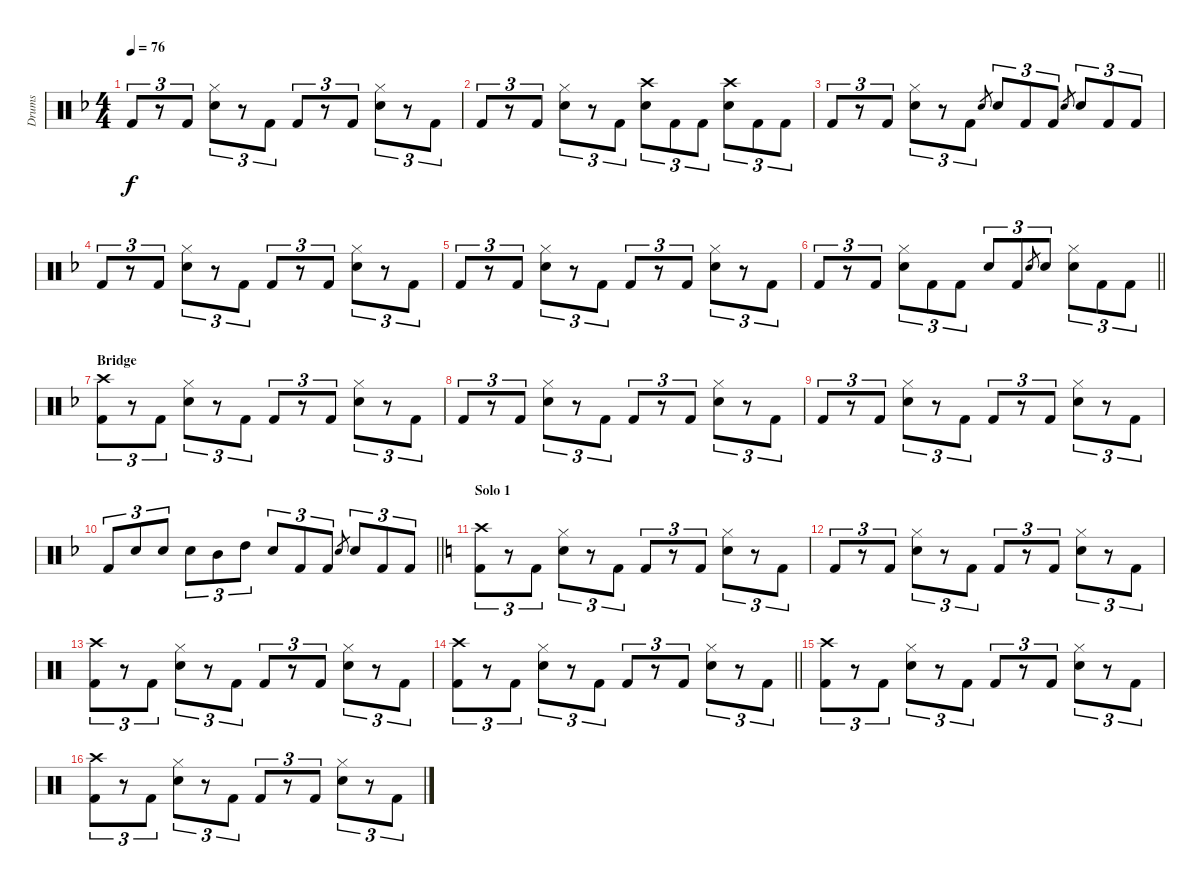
\track ("Drums" "Drums") {instrument percussion}
\staff {score}
\articulation defaults
\ts (4 4)
\tempo 76
\clef neutral
\ks f "Kick (hit) 2".8{tu (3 2) dy f}
r.8{tu (3 2)} "Kick (hit) 2".8{tu (3 2)} ("Hi-Hat (closed)" "Electric Snare (hit)").8{tu (3 2)} r.8{tu (3 2)} "Kick (hit) 2".8{tu (3 2)} "Kick (hit) 2".8{tu (3 2)} r.8{tu (3 2)} "Kick (hit) 2".8{tu (3 2)} ("Hi-Hat (closed)" "Electric Snare (hit)").8{tu (3 2)} r.8{tu (3 2)} "Kick (hit) 2".8{tu (3 2)} |
"Kick (hit) 2".8{tu (3 2)} r.8{tu (3 2)} "Kick (hit) 2".8{tu (3 2)} ("Hi-Hat (closed)" "Electric Snare (hit)").8{tu (3 2)} r.8{tu (3 2)} "Kick (hit) 2".8{tu (3 2)} ("Crash high (hit)" "Electric Snare (hit)").8{tu (3 2)} "Kick (hit) 2".8{tu (3 2)} "Kick (hit) 2".8{tu (3 2)} ("Crash high (hit)" "Electric Snare (hit)").8{tu (3 2)} "Kick (hit) 2".8{tu (3 2)} "Kick (hit) 2".8{tu (3 2)} |
"Kick (hit) 2".8{tu (3 2)} r.8{tu (3 2)} "Kick (hit) 2".8{tu (3 2)} ("Hi-Hat (closed)" "Electric Snare (hit)").8{tu (3 2)} r.8{tu (3 2)} "Kick (hit) 2".8{tu (3 2)} "Electric Snare (hit)".8{gr} "Electric Snare (hit)".8{tu (3 2)} "Kick (hit) 2".8{tu (3 2)} "Kick (hit) 2".8{tu (3 2)} "Electric Snare (hit)".8{gr} "Electric Snare (hit)".8{tu (3 2)} "Kick (hit) 2".8{tu (3 2)} "Kick (hit) 2".8{tu (3 2)} |
"Kick (hit) 2".8{tu (3 2)} r.8{tu (3 2)} "Kick (hit) 2".8{tu (3 2)} ("Hi-Hat (closed)" "Electric Snare (hit)").8{tu (3 2)} r.8{tu (3 2)} "Kick (hit) 2".8{tu (3 2)} "Kick (hit) 2".8{tu (3 2)} r.8{tu (3 2)} "Kick (hit) 2".8{tu (3 2)} ("Hi-Hat (closed)" "Electric Snare (hit)").8{tu (3 2)} r.8{tu (3 2)} "Kick (hit) 2".8{tu (3 2)} |
"Kick (hit) 2".8{tu (3 2)} r.8{tu (3 2)} "Kick (hit) 2".8{tu (3 2)} ("Hi-Hat (closed)" "Electric Snare (hit)").8{tu (3 2)} r.8{tu (3 2)} "Kick (hit) 2".8{tu (3 2)} "Kick (hit) 2".8{tu (3 2)} r.8{tu (3 2)} "Kick (hit) 2".8{tu (3 2)} ("Hi-Hat (closed)" "Electric Snare (hit)").8{tu (3 2)} r.8{tu (3 2)} "Kick (hit) 2".8{tu (3 2)} |
\barLineRight lightlight "Kick (hit) 2".8{tu (3 2)}
r.8{tu (3 2)} "Kick (hit) 2".8{tu (3 2)} ("Hi-Hat (closed)" "Electric Snare (hit)").8{tu (3 2)} "Kick (hit) 2".8{tu (3 2)} "Kick (hit) 2".8{tu (3 2)} "Electric Snare (hit)".8{tu (3 2)} "Kick (hit) 2".8{tu (3 2)} "Electric Snare (hit)".8{gr} "Electric Snare (hit)".8{tu (3 2)} ("Hi-Hat (closed)" "Electric Snare (hit)").8{tu (3 2)} "Kick (hit) 2".8{tu (3 2)} "Kick (hit) 2".8{tu (3 2)} |
\section ("" "Bridge")
("Crash high (hit)" "Kick (hit) 2").8{tu (3 2)} r.8{tu (3 2)} "Kick (hit) 2".8{tu (3 2)} ("Hi-Hat (closed)" "Electric Snare (hit)").8{tu (3 2)} r.8{tu (3 2)} "Kick (hit) 2".8{tu (3 2)} "Kick (hit) 2".8{tu (3 2)} r.8{tu (3 2)} "Kick (hit) 2".8{tu (3 2)} ("Hi-Hat (closed)" "Electric Snare (hit)").8{tu (3 2)} r.8{tu (3 2)} "Kick (hit) 2".8{tu (3 2)} |
"Kick (hit) 2".8{tu (3 2)} r.8{tu (3 2)} "Kick (hit) 2".8{tu (3 2)} ("Hi-Hat (closed)" "Electric Snare (hit)").8{tu (3 2)} r.8{tu (3 2)} "Kick (hit) 2".8{tu (3 2)} "Kick (hit) 2".8{tu (3 2)} r.8{tu (3 2)} "Kick (hit) 2".8{tu (3 2)} ("Hi-Hat (closed)" "Electric Snare (hit)").8{tu (3 2)} r.8{tu (3 2)} "Kick (hit) 2".8{tu (3 2)} |
"Kick (hit) 2".8{tu (3 2)} r.8{tu (3 2)} "Kick (hit) 2".8{tu (3 2)} ("Hi-Hat (closed)" "Electric Snare (hit)").8{tu (3 2)} r.8{tu (3 2)} "Kick (hit) 2".8{tu (3 2)} "Kick (hit) 2".8{tu (3 2)} r.8{tu (3 2)} "Kick (hit) 2".8{tu (3 2)} ("Hi-Hat (closed)" "Electric Snare (hit)").8{tu (3 2)} r.8{tu (3 2)} "Kick (hit) 2".8{tu (3 2)} |
\barLineRight lightlight "Kick (hit) 2".8{tu (3 2)} "Electric Snare (hit)".8{tu (3 2)} "Electric Snare (hit)".8{tu (3 2)} "Electric Snare (hit)".8{tu (3 2)} "Mid Tom (hit)".8{tu (3 2)} "High Tom (hit)".8{tu (3 2)} "Electric Snare (hit)".8{tu (3 2)} "Kick (hit) 2".8{tu (3 2)} "Kick (hit) 2".8{tu (3 2)} "Electric Snare (hit)".8{gr} "Electric Snare (hit)".8{tu (3 2)} "Kick (hit) 2".8{tu (3 2)} "Kick (hit) 2".8{tu (3 2)}
|
\section ("" "Solo 1")
\ks c
("Crash high (hit)" "Kick (hit) 2").8{tu (3 2)} r.8{tu (3 2)} "Kick (hit) 2".8{tu (3 2)} ("Hi-Hat (closed)" "Electric Snare (hit)").8{tu (3 2)} r.8{tu (3 2)} "Kick (hit) 2".8{tu (3 2)} "Kick (hit) 2".8{tu (3 2)} r.8{tu (3 2)} "Kick (hit) 2".8{tu (3 2)} ("Hi-Hat (closed)" "Electric Snare (hit)").8{tu (3 2)} r.8{tu (3 2)} "Kick (hit) 2".8{tu (3 2)} |
"Kick (hit) 2".8{tu (3 2)} r.8{tu (3 2)} "Kick (hit) 2".8{tu (3 2)} ("Hi-Hat (closed)" "Electric Snare (hit)").8{tu (3 2)} r.8{tu (3 2)} "Kick (hit) 2".8{tu (3 2)} "Kick (hit) 2".8{tu (3 2)} r.8{tu (3 2)} "Kick (hit) 2".8{tu (3 2)} ("Hi-Hat (closed)" "Electric Snare (hit)").8{tu (3 2)} r.8{tu (3 2)} "Kick (hit) 2".8{tu (3 2)} |
("Crash high (hit)" "Kick (hit) 2").8{tu (3 2)} r.8{tu (3 2)} "Kick (hit) 2".8{tu (3 2)} ("Hi-Hat (closed)" "Electric Snare (hit)").8{tu (3 2)} r.8{tu (3 2)} "Kick (hit) 2".8{tu (3 2)} "Kick (hit) 2".8{tu (3 2)} r.8{tu (3 2)} "Kick (hit) 2".8{tu (3 2)} ("Hi-Hat (closed)" "Electric Snare (hit)").8{tu (3 2)} r.8{tu (3 2)} "Kick (hit) 2".8{tu (3 2)} |
\barLineRight lightlight
("Crash high (hit)" "Kick (hit) 2").8{tu (3 2)} r.8{tu (3 2)} "Kick (hit) 2".8{tu (3 2)} ("Hi-Hat (closed)" "Electric Snare (hit)").8{tu (3 2)} r.8{tu (3 2)} "Kick (hit) 2".8{tu (3 2)} "Kick (hit) 2".8{tu (3 2)} r.8{tu (3 2)} "Kick (hit) 2".8{tu (3 2)} ("Hi-Hat (closed)" "Electric Snare (hit)").8{tu (3 2)} r.8{tu (3 2)} "Kick (hit) 2".8{tu (3 2)} |
("Crash high (hit)" "Kick (hit) 2").8{tu (3 2)} r.8{tu (3 2)} "Kick (hit) 2".8{tu (3 2)} ("Hi-Hat (closed)" "Electric Snare (hit)").8{tu (3 2)} r.8{tu (3 2)} "Kick (hit) 2".8{tu (3 2)} "Kick (hit) 2".8{tu (3 2)} r.8{tu (3 2)} "Kick (hit) 2".8{tu (3 2)} ("Hi-Hat (closed)" "Electric Snare (hit)").8{tu (3 2)} r.8{tu (3 2)} "Kick (hit) 2".8{tu (3 2)} |
("Crash high (hit)" "Kick (hit) 2").8{tu (3 2)} r.8{tu (3 2)} "Kick (hit) 2".8{tu (3 2)} ("Hi-Hat (closed)" "Electric Snare (hit)").8{tu (3 2)} r.8{tu (3 2)} "Kick (hit) 2".8{tu (3 2)} "Kick (hit) 2".8{tu (3 2)} r.8{tu (3 2)} "Kick (hit) 2".8{tu (3 2)} ("Hi-Hat (closed)" "Electric Snare (hit)").8{tu (3 2)} r.8{tu (3 2)} "Kick (hit) 2".8{tu (3 2)}
